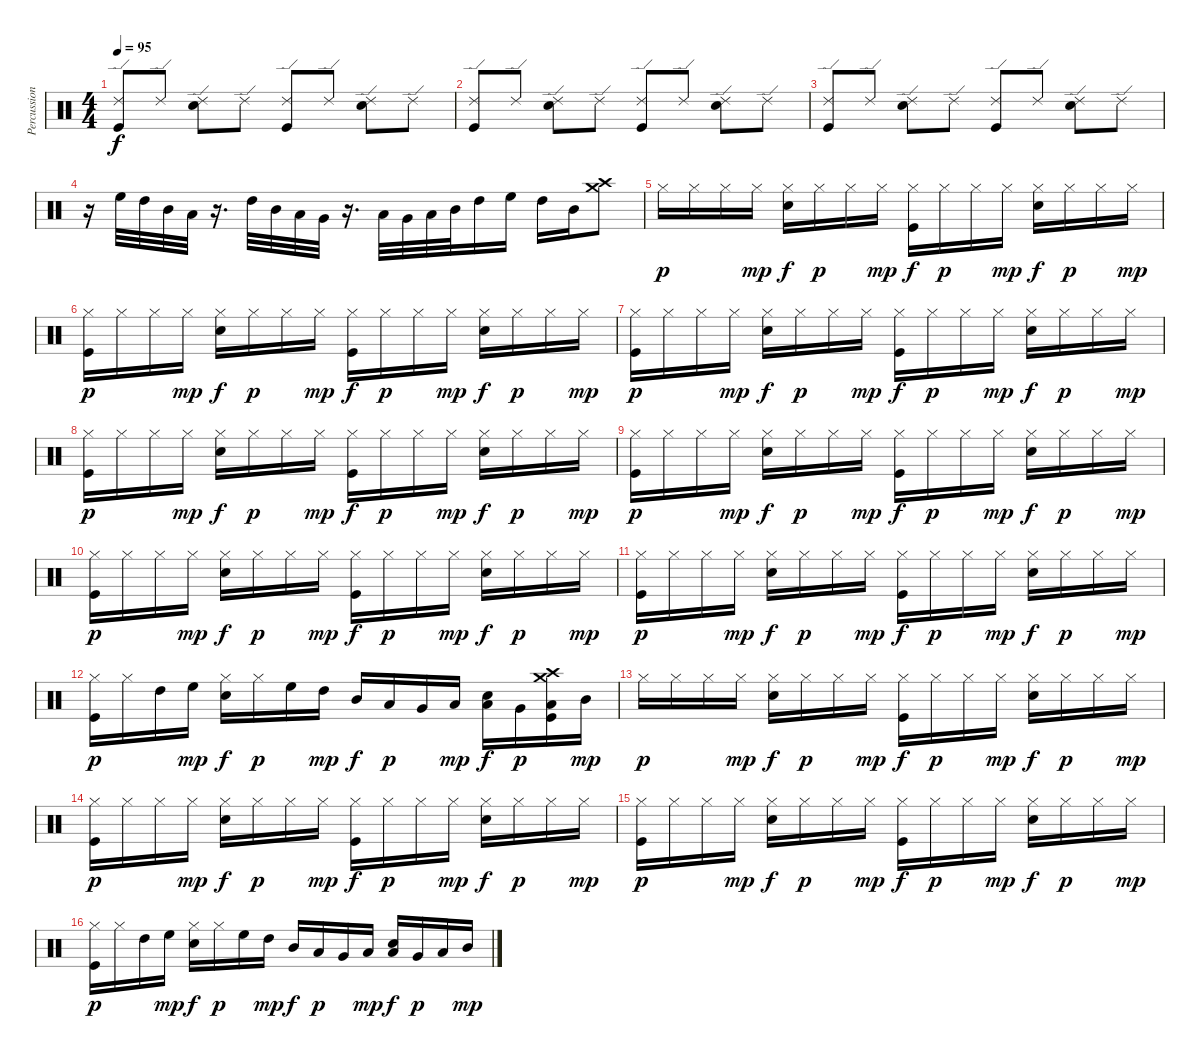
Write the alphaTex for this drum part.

\track ("Percussion" "Percussion") {instrument percussion}
\staff {score}
\articulation defaults
\ts (4 4)
\tempo 95
\clef neutral
\ks c
("Ride (edge) 2" "Kick (hit)").8{dy f} "Ride (edge) 2".8 ("Ride (edge) 2" "Electric Snare (hit)").8 "Ride (edge) 2".8 ("Ride (edge) 2" "Kick (hit)").8 "Ride (edge) 2".8 ("Ride (edge) 2" "Electric Snare (hit)").8 "Ride (edge) 2".8 |
("Ride (edge) 2" "Kick (hit)").8 "Ride (edge) 2".8 ("Ride (edge) 2" "Electric Snare (hit)").8 "Ride (edge) 2".8 ("Ride (edge) 2" "Kick (hit)").8 "Ride (edge) 2".8 ("Ride (edge) 2" "Electric Snare (hit)").8 "Ride (edge) 2".8 |
("Ride (edge) 2" "Kick (hit)").8 "Ride (edge) 2".8 ("Ride (edge) 2" "Electric Snare (hit)").8 "Ride (edge) 2".8 ("Ride (edge) 2" "Kick (hit)").8 "Ride (edge) 2".8 ("Ride (edge) 2" "Electric Snare (hit)").8 "Ride (edge) 2".8 |
r.16 "High Floor Tom (hit)".32 "High Tom (hit)".32 "Mid Tom (hit)".32 "Low Tom (hit)".32 r.16{d} "High Tom (hit)".32 "Mid Tom (hit)".32 "Low Tom (hit)".32 "Very Low Tom (hit)".32 r.16{d} "Low Floor Tom (hit)".32 "Very Low Tom (hit)".32 "Low Tom (hit)".32 "Mid Tom (hit)".32 "High Tom (hit)".16 "High Floor Tom (hit)".16 "High Tom (hit)".16 "Mid Tom (hit)".16 ("Crash medium (hit)" "Crash high (hit)").8 |
"Hi-Hat (closed)".16{dy p} "Hi-Hat (closed)".16 "Hi-Hat (closed)".16 "Hi-Hat (closed)".16{dy mp} ("Hi-Hat (closed)" "Snare (hit) 2").16{dy f} "Hi-Hat (closed)".16{dy p} "Hi-Hat (closed)".16 "Hi-Hat (closed)".16{dy mp} ("Hi-Hat (closed)" "Kick (hit)").16{dy f} "Hi-Hat (closed)".16{dy p} "Hi-Hat (closed)".16 "Hi-Hat (closed)".16{dy mp} ("Hi-Hat (closed)" "Snare (hit) 2").16{dy f} "Hi-Hat (closed)".16{dy p} "Hi-Hat (closed)".16 "Hi-Hat (closed)".16{dy mp} |
("Hi-Hat (closed)" "Kick (hit)").16{dy p} "Hi-Hat (closed)".16 "Hi-Hat (closed)".16 "Hi-Hat (closed)".16{dy mp} ("Hi-Hat (closed)" "Snare (hit) 2").16{dy f} "Hi-Hat (closed)".16{dy p} "Hi-Hat (closed)".16 "Hi-Hat (closed)".16{dy mp} ("Hi-Hat (closed)" "Kick (hit)").16{dy f} "Hi-Hat (closed)".16{dy p} "Hi-Hat (closed)".16 "Hi-Hat (closed)".16{dy mp} ("Hi-Hat (closed)" "Snare (hit) 2").16{dy f} "Hi-Hat (closed)".16{dy p} "Hi-Hat (closed)".16 "Hi-Hat (closed)".16{dy mp} |
("Hi-Hat (closed)" "Kick (hit)").16{dy p} "Hi-Hat (closed)".16 "Hi-Hat (closed)".16 "Hi-Hat (closed)".16{dy mp} ("Hi-Hat (closed)" "Snare (hit) 2").16{dy f} "Hi-Hat (closed)".16{dy p} "Hi-Hat (closed)".16 "Hi-Hat (closed)".16{dy mp} ("Hi-Hat (closed)" "Kick (hit)").16{dy f} "Hi-Hat (closed)".16{dy p} "Hi-Hat (closed)".16 "Hi-Hat (closed)".16{dy mp} ("Hi-Hat (closed)" "Snare (hit) 2").16{dy f} "Hi-Hat (closed)".16{dy p} "Hi-Hat (closed)".16 "Hi-Hat (closed)".16{dy mp} |
("Hi-Hat (closed)" "Kick (hit)").16{dy p} "Hi-Hat (closed)".16 "Hi-Hat (closed)".16 "Hi-Hat (closed)".16{dy mp} ("Hi-Hat (closed)" "Snare (hit) 2").16{dy f} "Hi-Hat (closed)".16{dy p} "Hi-Hat (closed)".16 "Hi-Hat (closed)".16{dy mp} ("Hi-Hat (closed)" "Kick (hit)").16{dy f} "Hi-Hat (closed)".16{dy p} "Hi-Hat (closed)".16 "Hi-Hat (closed)".16{dy mp} ("Hi-Hat (closed)" "Snare (hit) 2").16{dy f} "Hi-Hat (closed)".16{dy p} "Hi-Hat (closed)".16 "Hi-Hat (closed)".16{dy mp} |
("Hi-Hat (closed)" "Kick (hit)").16{dy p} "Hi-Hat (closed)".16 "Hi-Hat (closed)".16 "Hi-Hat (closed)".16{dy mp} ("Hi-Hat (closed)" "Snare (hit) 2").16{dy f} "Hi-Hat (closed)".16{dy p} "Hi-Hat (closed)".16 "Hi-Hat (closed)".16{dy mp} ("Hi-Hat (closed)" "Kick (hit)").16{dy f} "Hi-Hat (closed)".16{dy p} "Hi-Hat (closed)".16 "Hi-Hat (closed)".16{dy mp} ("Hi-Hat (closed)" "Snare (hit) 2").16{dy f} "Hi-Hat (closed)".16{dy p} "Hi-Hat (closed)".16 "Hi-Hat (closed)".16{dy mp} |
("Hi-Hat (closed)" "Kick (hit)").16{dy p} "Hi-Hat (closed)".16 "Hi-Hat (closed)".16 "Hi-Hat (closed)".16{dy mp} ("Hi-Hat (closed)" "Snare (hit) 2").16{dy f} "Hi-Hat (closed)".16{dy p} "Hi-Hat (closed)".16 "Hi-Hat (closed)".16{dy mp} ("Hi-Hat (closed)" "Kick (hit)").16{dy f} "Hi-Hat (closed)".16{dy p} "Hi-Hat (closed)".16 "Hi-Hat (closed)".16{dy mp} ("Hi-Hat (closed)" "Snare (hit) 2").16{dy f} "Hi-Hat (closed)".16{dy p} "Hi-Hat (closed)".16 "Hi-Hat (closed)".16{dy mp} |
("Hi-Hat (closed)" "Kick (hit)").16{dy p} "Hi-Hat (closed)".16 "Hi-Hat (closed)".16 "Hi-Hat (closed)".16{dy mp} ("Hi-Hat (closed)" "Snare (hit) 2").16{dy f} "Hi-Hat (closed)".16{dy p} "Hi-Hat (closed)".16 "Hi-Hat (closed)".16{dy mp} ("Hi-Hat (closed)" "Kick (hit)").16{dy f} "Hi-Hat (closed)".16{dy p} "Hi-Hat (closed)".16 "Hi-Hat (closed)".16{dy mp} ("Hi-Hat (closed)" "Snare (hit) 2").16{dy f} "Hi-Hat (closed)".16{dy p} "Hi-Hat (closed)".16 "Hi-Hat (closed)".16{dy mp} |
("Hi-Hat (closed)" "Kick (hit)").16{dy p} "Hi-Hat (closed)".16 "High Tom (hit)".16 "High Floor Tom (hit)".16{dy mp} ("Hi-Hat (closed)" "Snare (hit) 2").16{dy f} "Hi-Hat (closed)".16{dy p} "High Floor Tom (hit)".16 "High Tom (hit)".16{dy mp} "Mid Tom (hit)".16{dy f} "Low Tom (hit)".16{dy p} "Very Low Tom (hit)".16 "Low Floor Tom (hit)".16{dy mp} ("Low Floor Tom (hit)" "Snare (hit) 2").16{dy f} "Very Low Tom (hit)".16{dy p} ("Low Tom (hit)" "Crash medium (hit)" "Crash high (hit)" "Kick (hit)").16 "Mid Tom (hit)".16{dy mp} |
"Hi-Hat (closed)".16{dy p} "Hi-Hat (closed)".16 "Hi-Hat (closed)".16 "Hi-Hat (closed)".16{dy mp} ("Hi-Hat (closed)" "Snare (hit) 2").16{dy f} "Hi-Hat (closed)".16{dy p} "Hi-Hat (closed)".16 "Hi-Hat (closed)".16{dy mp} ("Hi-Hat (closed)" "Kick (hit)").16{dy f} "Hi-Hat (closed)".16{dy p} "Hi-Hat (closed)".16 "Hi-Hat (closed)".16{dy mp} ("Hi-Hat (closed)" "Snare (hit) 2").16{dy f} "Hi-Hat (closed)".16{dy p} "Hi-Hat (closed)".16 "Hi-Hat (closed)".16{dy mp} |
("Hi-Hat (closed)" "Kick (hit)").16{dy p} "Hi-Hat (closed)".16 "Hi-Hat (closed)".16 "Hi-Hat (closed)".16{dy mp} ("Hi-Hat (closed)" "Snare (hit) 2").16{dy f} "Hi-Hat (closed)".16{dy p} "Hi-Hat (closed)".16 "Hi-Hat (closed)".16{dy mp} ("Hi-Hat (closed)" "Kick (hit)").16{dy f} "Hi-Hat (closed)".16{dy p} "Hi-Hat (closed)".16 "Hi-Hat (closed)".16{dy mp} ("Hi-Hat (closed)" "Snare (hit) 2").16{dy f} "Hi-Hat (closed)".16{dy p} "Hi-Hat (closed)".16 "Hi-Hat (closed)".16{dy mp} |
("Hi-Hat (closed)" "Kick (hit)").16{dy p} "Hi-Hat (closed)".16 "Hi-Hat (closed)".16 "Hi-Hat (closed)".16{dy mp} ("Hi-Hat (closed)" "Snare (hit) 2").16{dy f} "Hi-Hat (closed)".16{dy p} "Hi-Hat (closed)".16 "Hi-Hat (closed)".16{dy mp} ("Hi-Hat (closed)" "Kick (hit)").16{dy f} "Hi-Hat (closed)".16{dy p} "Hi-Hat (closed)".16 "Hi-Hat (closed)".16{dy mp} ("Hi-Hat (closed)" "Snare (hit) 2").16{dy f} "Hi-Hat (closed)".16{dy p} "Hi-Hat (closed)".16 "Hi-Hat (closed)".16{dy mp} |
("Hi-Hat (closed)" "Kick (hit)").16{dy p} "Hi-Hat (closed)".16 "High Tom (hit)".16 "High Floor Tom (hit)".16{dy mp} ("Hi-Hat (closed)" "Snare (hit) 2").16{dy f} "Hi-Hat (closed)".16{dy p} "High Floor Tom (hit)".16 "High Tom (hit)".16{dy mp} "Mid Tom (hit)".16{dy f} "Low Tom (hit)".16{dy p} "Very Low Tom (hit)".16 "Low Floor Tom (hit)".16{dy mp} ("Low Floor Tom (hit)" "Snare (hit) 2").16{dy f} "Very Low Tom (hit)".16{dy p} "Low Tom (hit)".16 "Mid Tom (hit)".16{dy mp}
